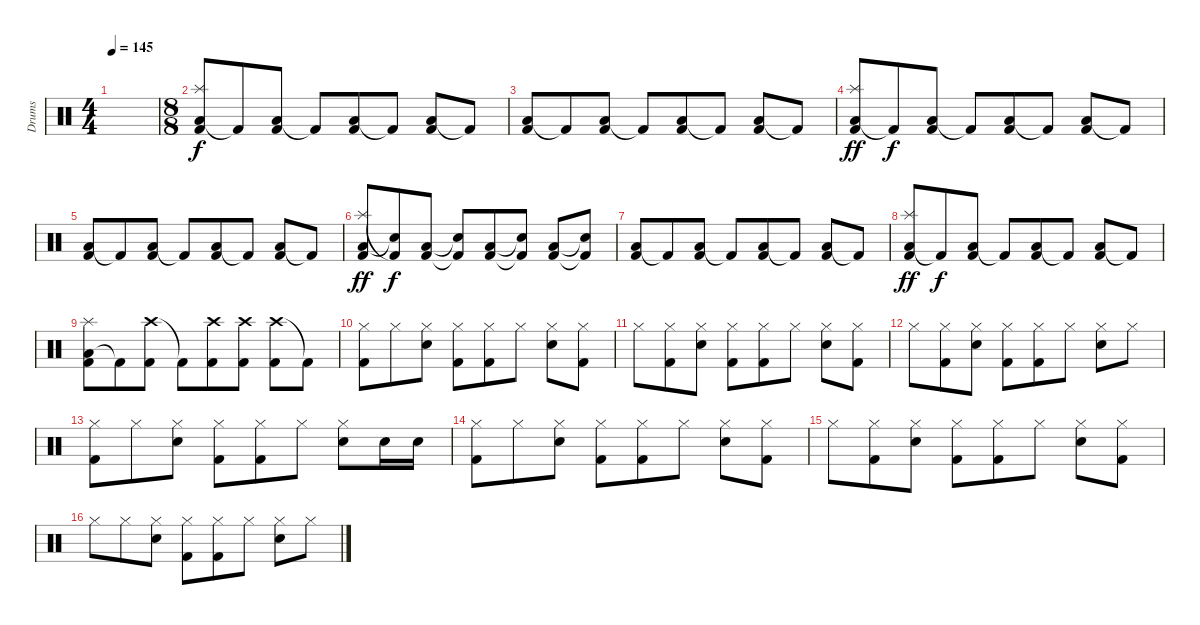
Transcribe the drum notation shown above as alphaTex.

\track ("Drums" "Drums") {instrument percussion}
\staff {score}
\articulation defaults
\ts (4 4)
\tempo 145
\clef neutral
\ks c
|
\ts (8 8)
("Low Floor Tom (hit)" "Splash (hit)" "Kick (hit) 2").8 "Kick (hit) 2"{t}.8{dy f} ("Low Floor Tom (hit)" "Kick (hit) 2").8 "Kick (hit) 2"{t}.8 ("Low Floor Tom (hit)" "Kick (hit) 2").8 "Kick (hit) 2"{t}.8 ("Low Floor Tom (hit)" "Kick (hit) 2").8 "Kick (hit) 2"{t}.8 |
("Low Floor Tom (hit)" "Kick (hit) 2").8 "Kick (hit) 2"{t}.8 ("Low Floor Tom (hit)" "Kick (hit) 2").8 "Kick (hit) 2"{t}.8 ("Low Floor Tom (hit)" "Kick (hit) 2").8 "Kick (hit) 2"{t}.8 ("Low Floor Tom (hit)" "Kick (hit) 2").8 "Kick (hit) 2"{t}.8 |
("Low Floor Tom (hit)" "Splash (hit)" "Kick (hit) 2").8{dy ff} "Kick (hit) 2"{t}.8{dy f} ("Low Floor Tom (hit)" "Kick (hit) 2").8 "Kick (hit) 2"{t}.8 ("Low Floor Tom (hit)" "Kick (hit) 2").8 "Kick (hit) 2"{t}.8 ("Low Floor Tom (hit)" "Kick (hit) 2").8 "Kick (hit) 2"{t}.8 |
("Low Floor Tom (hit)" "Kick (hit) 2").8 "Kick (hit) 2"{t}.8 ("Low Floor Tom (hit)" "Kick (hit) 2").8 "Kick (hit) 2"{t}.8 ("Low Floor Tom (hit)" "Kick (hit) 2").8 "Kick (hit) 2"{t}.8 ("Low Floor Tom (hit)" "Kick (hit) 2").8 "Kick (hit) 2"{t}.8 |
("Low Floor Tom (hit)" "Splash (hit)" "Kick (hit) 2").8{dy ff} ("Snare (hit)"{t} "Kick (hit) 2"{t}).8{dy f} ("Low Floor Tom (hit)" "Kick (hit) 2").8 ("Snare (hit)"{t} "Kick (hit) 2"{t}).8 ("Low Floor Tom (hit)" "Kick (hit) 2").8 ("Snare (hit)"{t} "Kick (hit) 2"{t}).8 ("Low Floor Tom (hit)" "Kick (hit) 2").8 ("Snare (hit)"{t} "Kick (hit) 2"{t}).8 |
("Low Floor Tom (hit)" "Kick (hit) 2").8 "Kick (hit) 2"{t}.8 ("Low Floor Tom (hit)" "Kick (hit) 2").8 "Kick (hit) 2"{t}.8 ("Low Floor Tom (hit)" "Kick (hit) 2").8 "Kick (hit) 2"{t}.8 ("Low Floor Tom (hit)" "Kick (hit) 2").8 "Kick (hit) 2"{t}.8 |
("Low Floor Tom (hit)" "Splash (hit)" "Kick (hit) 2").8{dy ff} "Kick (hit) 2"{t}.8{dy f} ("Low Floor Tom (hit)" "Kick (hit) 2").8 "Kick (hit) 2"{t}.8 ("Low Floor Tom (hit)" "Kick (hit) 2").8 "Kick (hit) 2"{t}.8 ("Low Floor Tom (hit)" "Kick (hit) 2").8 "Kick (hit) 2"{t}.8 |
("Low Floor Tom (hit)" "Splash (hit)" "Kick (hit) 2").8 "Kick (hit) 2"{t}.8 ("Crash high (hit)" "Kick (hit) 2").8 "Kick (hit) 2"{t}.8 ("Crash high (hit)" "Kick (hit) 2").8 ("Crash high (hit)" "Kick (hit) 2").8 ("Crash high (hit)" "Kick (hit) 2").8 "Kick (hit) 2"{t}.8 |
("Kick (hit) 2" "Hi-Hat (closed)").8 "Hi-Hat (closed)".8 ("Snare (hit) 2" "Hi-Hat (closed)").8 ("Kick (hit) 2" "Hi-Hat (closed)").8 ("Kick (hit) 2" "Hi-Hat (closed)").8 "Hi-Hat (closed)".8 ("Snare (hit) 2" "Hi-Hat (closed)").8 ("Kick (hit) 2" "Hi-Hat (closed)").8 |
"Hi-Hat (closed)".8 ("Kick (hit) 2" "Hi-Hat (closed)").8 ("Snare (hit) 2" "Hi-Hat (closed)").8 ("Kick (hit) 2" "Hi-Hat (closed)").8 ("Kick (hit) 2" "Hi-Hat (closed)").8 "Hi-Hat (closed)".8 ("Snare (hit) 2" "Hi-Hat (closed)").8 ("Kick (hit) 2" "Hi-Hat (closed)").8 |
"Hi-Hat (closed)".8 ("Kick (hit) 2" "Hi-Hat (closed)").8 ("Snare (hit) 2" "Hi-Hat (closed)").8 ("Kick (hit) 2" "Hi-Hat (closed)").8 ("Kick (hit) 2" "Hi-Hat (closed)").8 "Hi-Hat (closed)".8 ("Snare (hit) 2" "Hi-Hat (closed)").8 "Hi-Hat (closed)".8 |
("Kick (hit) 2" "Hi-Hat (closed)").8 "Hi-Hat (closed)".8 ("Snare (hit) 2" "Hi-Hat (closed)").8 ("Kick (hit) 2" "Hi-Hat (closed)").8 ("Kick (hit) 2" "Hi-Hat (closed)").8 "Hi-Hat (closed)".8 ("Snare (hit) 2" "Hi-Hat (closed)").8 "Snare (hit) 2".16 "Snare (hit) 2".16 |
("Kick (hit) 2" "Hi-Hat (closed)").8 "Hi-Hat (closed)".8 ("Snare (hit) 2" "Hi-Hat (closed)").8 ("Kick (hit) 2" "Hi-Hat (closed)").8 ("Kick (hit) 2" "Hi-Hat (closed)").8 "Hi-Hat (closed)".8 ("Snare (hit) 2" "Hi-Hat (closed)").8 ("Kick (hit) 2" "Hi-Hat (closed)").8 |
"Hi-Hat (closed)".8 ("Kick (hit) 2" "Hi-Hat (closed)").8 ("Snare (hit) 2" "Hi-Hat (closed)").8 ("Kick (hit) 2" "Hi-Hat (closed)").8 ("Kick (hit) 2" "Hi-Hat (closed)").8 "Hi-Hat (closed)".8 ("Snare (hit) 2" "Hi-Hat (closed)").8 ("Kick (hit) 2" "Hi-Hat (closed)").8 |
"Hi-Hat (closed)".8 "Hi-Hat (closed)".8 ("Snare (hit) 2" "Hi-Hat (closed)").8 ("Kick (hit) 2" "Hi-Hat (closed)").8 ("Kick (hit) 2" "Hi-Hat (closed)").8 "Hi-Hat (closed)".8 ("Snare (hit) 2" "Hi-Hat (closed)").8 "Hi-Hat (closed)".8
